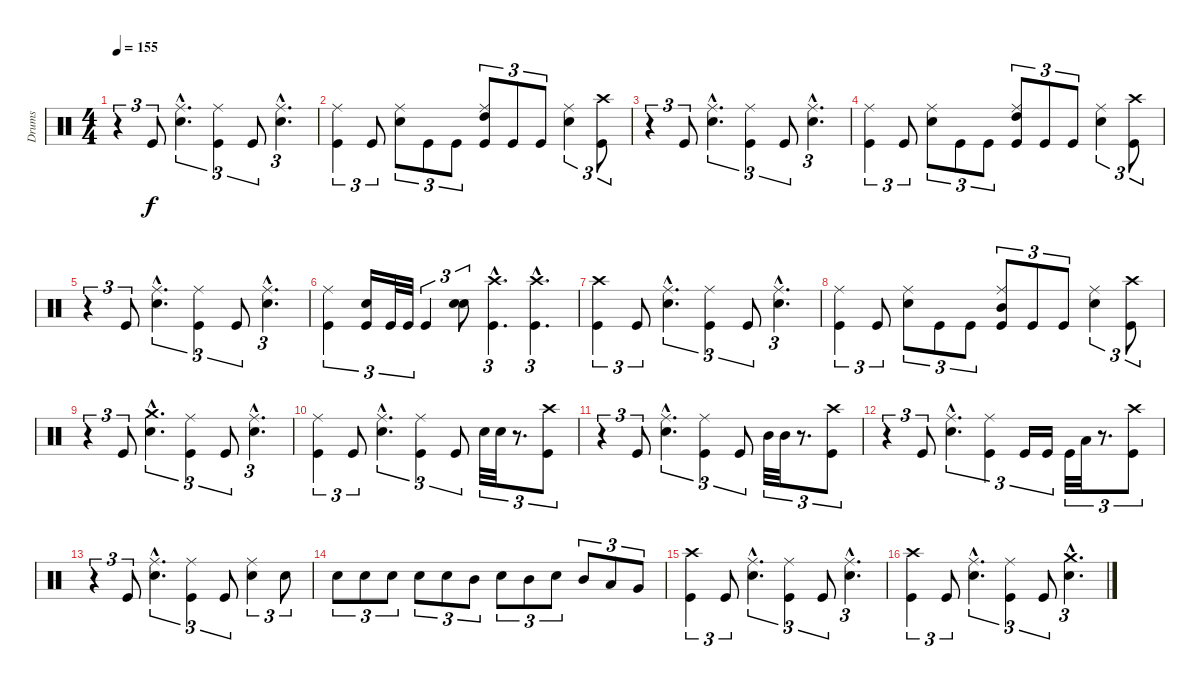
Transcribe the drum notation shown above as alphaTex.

\track ("Drums" "Drums") {instrument percussion}
\staff {score}
\articulation defaults
\ts (4 4)
\tempo 155
\clef neutral
\ks c
r.4{tu (3 2) dy f} "Kick (hit)".8{tu (3 2)} ("Ride (middle)"{hac} "Snare (hit) 2"{hac}).4{d tu (3 2)} ("Ride (middle)" "Kick (hit)").4{tu (3 2)} "Kick (hit)".8{tu (3 2)} ("Ride (middle)"{hac} "Snare (hit) 2"{hac}).4{d tu (3 2)} |
("Ride (middle)" "Kick (hit)").4{tu (3 2)} "Kick (hit)".8{tu (3 2)} ("Ride (middle)" "Snare (hit) 2").8{tu (3 2)} "Kick (hit)".8{tu (3 2)} "Kick (hit)".8{tu (3 2)} ("Ride (middle)" "Kick (hit)" "High Tom (hit)").8{tu (3 2)} "Kick (hit)".8{tu (3 2)} "Kick (hit)".8{tu (3 2)} ("Ride (middle)" "Snare (hit) 2").4{tu (3 2)} ("Crash high (hit)" "Kick (hit)").8{tu (3 2)} |
r.4{tu (3 2)} "Kick (hit)".8{tu (3 2)} ("Ride (middle)"{hac} "Snare (hit) 2"{hac}).4{d tu (3 2)} ("Ride (middle)" "Kick (hit)").4{tu (3 2)} "Kick (hit)".8{tu (3 2)} ("Ride (middle)"{hac} "Snare (hit) 2"{hac}).4{d tu (3 2)} |
("Ride (middle)" "Kick (hit)").4{tu (3 2)} "Kick (hit)".8{tu (3 2)} ("Ride (middle)" "Snare (hit) 2").8{tu (3 2)} "Kick (hit)".8{tu (3 2)} "Kick (hit)".8{tu (3 2)} ("Ride (middle)" "Kick (hit)" "High Tom (hit)").8{tu (3 2)} "Kick (hit)".8{tu (3 2)} "Kick (hit)".8{tu (3 2)} ("Ride (middle)" "Snare (hit) 2").4{tu (3 2)} ("Crash high (hit)" "Kick (hit)").8{tu (3 2)} |
r.4{tu (3 2)} "Kick (hit)".8{tu (3 2)} ("Ride (middle)"{hac} "Snare (hit) 2"{hac}).4{d tu (3 2)} ("Ride (middle)" "Kick (hit)").4{tu (3 2)} "Kick (hit)".8{tu (3 2)} ("Ride (middle)"{hac} "Snare (hit) 2"{hac}).4{d tu (3 2)} |
("Ride (middle)" "Kick (hit)").4{tu (3 2)} ("Snare (hit) 2" "Kick (hit)").16{tu (3 2)} "Kick (hit)".32{tu (3 2)} "Kick (hit)".32{tu (3 2)} "Kick (hit)".4{tu (3 2)} ("Snare (hit) 2" "Electric Snare (hit)").8{tu (3 2)} ("Crash high (hit)"{hac} "Kick (hit)"{hac}).4{d tu (3 2)} ("Crash high (hit)"{hac} "Kick (hit)"{hac}).4{d tu (3 2)} |
("Crash high (hit)" "Kick (hit)").4{tu (3 2)} "Kick (hit)".8{tu (3 2)} ("Ride (middle)"{hac} "Snare (hit) 2"{hac}).4{d tu (3 2)} ("Ride (middle)" "Kick (hit)").4{tu (3 2)} "Kick (hit)".8{tu (3 2)} ("Ride (middle)"{hac} "Snare (hit) 2"{hac}).4{d tu (3 2)} |
("Ride (middle)" "Kick (hit)").4{tu (3 2)} "Kick (hit)".8{tu (3 2)} ("Ride (middle)" "Snare (hit) 2").8{tu (3 2)} "Kick (hit)".8{tu (3 2)} "Kick (hit)".8{tu (3 2)} ("Ride (middle)" "Kick (hit)" "Mid Tom (hit)").8{tu (3 2)} "Kick (hit)".8{tu (3 2)} "Kick (hit)".8{tu (3 2)} ("Ride (middle)" "Snare (hit) 2").4{tu (3 2)} ("Crash high (hit)" "Kick (hit)").8{tu (3 2)} |
r.4{tu (3 2)} "Kick (hit)".8{tu (3 2)} ("Crash medium (hit)"{hac} "Snare (hit) 2"{hac}).4{d tu (3 2)} ("Ride (middle)" "Kick (hit)").4{tu (3 2)} "Kick (hit)".8{tu (3 2)} ("Ride (middle)"{hac} "Snare (hit) 2"{hac}).4{d tu (3 2)} |
("Ride (middle)" "Kick (hit)").4{tu (3 2)} "Kick (hit)".8{tu (3 2)} ("Ride (middle)"{hac} "Snare (hit) 2"{hac}).4{d tu (3 2)} ("Ride (middle)" "Kick (hit)").4{tu (3 2)} "Kick (hit)".8{tu (3 2)} "Snare (hit) 2".32{tu (3 2)} "Snare (hit) 2".32{tu (3 2)} r.8{d tu (3 2)} ("Crash high (hit)" "Kick (hit)").8{tu (3 2)} |
r.4{tu (3 2)} "Kick (hit)".8{tu (3 2)} ("Ride (middle)"{hac} "Snare (hit) 2"{hac}).4{d tu (3 2)} ("Ride (middle)" "Kick (hit)").4{tu (3 2)} "Kick (hit)".8{tu (3 2)} "Mid Tom (hit)".32{tu (3 2)} "Mid Tom (hit)".32{tu (3 2)} r.8{d tu (3 2)} ("Crash high (hit)" "Kick (hit)").8{tu (3 2)} |
r.4{tu (3 2)} "Kick (hit)".8{tu (3 2)} ("Ride (middle)"{hac} "Snare (hit) 2"{hac}).4{d tu (3 2)} ("Ride (middle)" "Kick (hit)").4{tu (3 2)} "Kick (hit)".16{tu (3 2)} "Kick (hit)".16{tu (3 2)} "Kick (hit)".32{tu (3 2)} "Low Tom (hit)".32{tu (3 2)} r.8{d tu (3 2)} ("Crash high (hit)" "Kick (hit)").8{tu (3 2)} |
r.4{tu (3 2)} "Kick (hit)".8{tu (3 2)} ("Ride (middle)"{hac} "Snare (hit) 2"{hac}).4{d tu (3 2)} ("Ride (middle)" "Kick (hit)").4{tu (3 2)} "Kick (hit)".8{tu (3 2)} ("Ride (middle)" "Snare (hit) 2").4{tu (3 2)} "Snare (hit) 2".8{tu (3 2)} |
"Snare (hit) 2".8{tu (3 2)} "Snare (hit) 2".8{tu (3 2)} "Snare (hit) 2".8{tu (3 2)} "Snare (hit) 2".8{tu (3 2)} "Snare (hit) 2".8{tu (3 2)} "Mid Tom (hit)".8{tu (3 2)} "Snare (hit) 2".8{tu (3 2)} "Mid Tom (hit)".8{tu (3 2)} "Snare (hit) 2".8{tu (3 2)} "Mid Tom (hit)".8{tu (3 2)} "Low Tom (hit)".8{tu (3 2)} "Very Low Tom (hit)".8{tu (3 2)} |
("Crash high (hit)" "Kick (hit)").4{tu (3 2)} "Kick (hit)".8{tu (3 2)} ("Ride (middle)"{hac} "Snare (hit) 2"{hac}).4{d tu (3 2)} ("Ride (middle)" "Kick (hit)").4{tu (3 2)} "Kick (hit)".8{tu (3 2)} ("Ride (middle)"{hac} "Snare (hit) 2"{hac}).4{d tu (3 2)} |
("Crash high (hit)" "Kick (hit)").4{tu (3 2)} "Kick (hit)".8{tu (3 2)} ("Ride (middle)"{hac} "Snare (hit) 2"{hac}).4{d tu (3 2)} ("Ride (middle)" "Kick (hit)").4{tu (3 2)} "Kick (hit)".8{tu (3 2)} ("Crash medium (hit)"{hac} "Snare (hit) 2"{hac}).4{d tu (3 2)}
